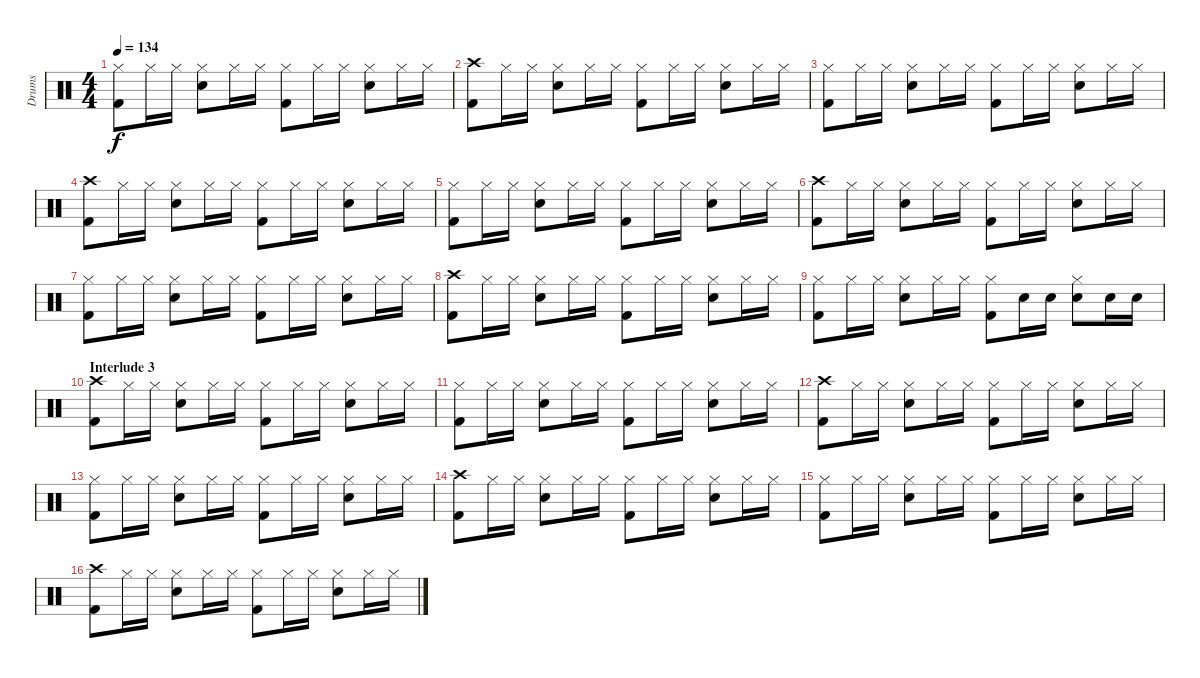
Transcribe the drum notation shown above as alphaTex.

\track ("Drums" "Drums") {instrument percussion}
\staff {score}
\articulation defaults
\ts (4 4)
\tempo 134
\clef neutral
\ks c
("Kick (hit) 2" "Hi-Hat (closed)").8{dy f} "Hi-Hat (closed)".16 "Hi-Hat (closed)".16 ("Snare (hit) 2" "Hi-Hat (closed)").8 "Hi-Hat (closed)".16 "Hi-Hat (closed)".16 ("Kick (hit) 2" "Hi-Hat (closed)").8 "Hi-Hat (closed)".16 "Hi-Hat (closed)".16 ("Snare (hit) 2" "Hi-Hat (closed)").8 "Hi-Hat (closed)".16 "Hi-Hat (closed)".16 |
("Kick (hit) 2" "Crash high (hit)").8 "Hi-Hat (closed)".16 "Hi-Hat (closed)".16 ("Snare (hit) 2" "Hi-Hat (closed)").8 "Hi-Hat (closed)".16 "Hi-Hat (closed)".16 ("Kick (hit) 2" "Hi-Hat (closed)").8 "Hi-Hat (closed)".16 "Hi-Hat (closed)".16 ("Snare (hit) 2" "Hi-Hat (closed)").8 "Hi-Hat (closed)".16 "Hi-Hat (closed)".16 |
("Kick (hit) 2" "Hi-Hat (closed)").8 "Hi-Hat (closed)".16 "Hi-Hat (closed)".16 ("Snare (hit) 2" "Hi-Hat (closed)").8 "Hi-Hat (closed)".16 "Hi-Hat (closed)".16 ("Kick (hit) 2" "Hi-Hat (closed)").8 "Hi-Hat (closed)".16 "Hi-Hat (closed)".16 ("Snare (hit) 2" "Hi-Hat (closed)").8 "Hi-Hat (closed)".16 "Hi-Hat (closed)".16 |
("Kick (hit) 2" "Crash high (hit)").8 "Hi-Hat (closed)".16 "Hi-Hat (closed)".16 ("Snare (hit) 2" "Hi-Hat (closed)").8 "Hi-Hat (closed)".16 "Hi-Hat (closed)".16 ("Kick (hit) 2" "Hi-Hat (closed)").8 "Hi-Hat (closed)".16 "Hi-Hat (closed)".16 ("Snare (hit) 2" "Hi-Hat (closed)").8 "Hi-Hat (closed)".16 "Hi-Hat (closed)".16 |
("Kick (hit) 2" "Hi-Hat (closed)").8 "Hi-Hat (closed)".16 "Hi-Hat (closed)".16 ("Snare (hit) 2" "Hi-Hat (closed)").8 "Hi-Hat (closed)".16 "Hi-Hat (closed)".16 ("Kick (hit) 2" "Hi-Hat (closed)").8 "Hi-Hat (closed)".16 "Hi-Hat (closed)".16 ("Snare (hit) 2" "Hi-Hat (closed)").8 "Hi-Hat (closed)".16 "Hi-Hat (closed)".16 |
("Kick (hit) 2" "Crash high (hit)").8 "Hi-Hat (closed)".16 "Hi-Hat (closed)".16 ("Snare (hit) 2" "Hi-Hat (closed)").8 "Hi-Hat (closed)".16 "Hi-Hat (closed)".16 ("Kick (hit) 2" "Hi-Hat (closed)").8 "Hi-Hat (closed)".16 "Hi-Hat (closed)".16 ("Snare (hit) 2" "Hi-Hat (closed)").8 "Hi-Hat (closed)".16 "Hi-Hat (closed)".16 |
("Kick (hit) 2" "Hi-Hat (closed)").8 "Hi-Hat (closed)".16 "Hi-Hat (closed)".16 ("Snare (hit) 2" "Hi-Hat (closed)").8 "Hi-Hat (closed)".16 "Hi-Hat (closed)".16 ("Kick (hit) 2" "Hi-Hat (closed)").8 "Hi-Hat (closed)".16 "Hi-Hat (closed)".16 ("Snare (hit) 2" "Hi-Hat (closed)").8 "Hi-Hat (closed)".16 "Hi-Hat (closed)".16 |
("Kick (hit) 2" "Crash high (hit)").8 "Hi-Hat (closed)".16 "Hi-Hat (closed)".16 ("Snare (hit) 2" "Hi-Hat (closed)").8 "Hi-Hat (closed)".16 "Hi-Hat (closed)".16 ("Kick (hit) 2" "Hi-Hat (closed)").8 "Hi-Hat (closed)".16 "Hi-Hat (closed)".16 ("Snare (hit) 2" "Hi-Hat (closed)").8 "Hi-Hat (closed)".16 "Hi-Hat (closed)".16 |
("Kick (hit) 2" "Hi-Hat (closed)").8 "Hi-Hat (closed)".16 "Hi-Hat (closed)".16 ("Snare (hit) 2" "Hi-Hat (closed)").8 "Hi-Hat (closed)".16 "Hi-Hat (closed)".16 ("Kick (hit) 2" "Hi-Hat (closed)").8 "Snare (hit) 2".16 "Snare (hit) 2".16 ("Snare (hit) 2" "Hi-Hat (closed)").8 "Snare (hit) 2".16 "Snare (hit) 2".16 |
\section ("" "Interlude 3")
("Kick (hit) 2" "Crash high (hit)").8 "Hi-Hat (closed)".16 "Hi-Hat (closed)".16 ("Snare (hit) 2" "Hi-Hat (closed)").8 "Hi-Hat (closed)".16 "Hi-Hat (closed)".16 ("Kick (hit) 2" "Hi-Hat (closed)").8 "Hi-Hat (closed)".16 "Hi-Hat (closed)".16 ("Snare (hit) 2" "Hi-Hat (closed)").8 "Hi-Hat (closed)".16 "Hi-Hat (closed)".16 |
("Kick (hit) 2" "Hi-Hat (closed)").8 "Hi-Hat (closed)".16 "Hi-Hat (closed)".16 ("Snare (hit) 2" "Hi-Hat (closed)").8 "Hi-Hat (closed)".16 "Hi-Hat (closed)".16 ("Kick (hit) 2" "Hi-Hat (closed)").8 "Hi-Hat (closed)".16 "Hi-Hat (closed)".16 ("Snare (hit) 2" "Hi-Hat (closed)").8 "Hi-Hat (closed)".16 "Hi-Hat (closed)".16 |
("Kick (hit) 2" "Crash high (hit)").8 "Hi-Hat (closed)".16 "Hi-Hat (closed)".16 ("Snare (hit) 2" "Hi-Hat (closed)").8 "Hi-Hat (closed)".16 "Hi-Hat (closed)".16 ("Kick (hit) 2" "Hi-Hat (closed)").8 "Hi-Hat (closed)".16 "Hi-Hat (closed)".16 ("Snare (hit) 2" "Hi-Hat (closed)").8 "Hi-Hat (closed)".16 "Hi-Hat (closed)".16 |
("Kick (hit) 2" "Hi-Hat (closed)").8 "Hi-Hat (closed)".16 "Hi-Hat (closed)".16 ("Snare (hit) 2" "Hi-Hat (closed)").8 "Hi-Hat (closed)".16 "Hi-Hat (closed)".16 ("Kick (hit) 2" "Hi-Hat (closed)").8 "Hi-Hat (closed)".16 "Hi-Hat (closed)".16 ("Snare (hit) 2" "Hi-Hat (closed)").8 "Hi-Hat (closed)".16 "Hi-Hat (closed)".16 |
("Kick (hit) 2" "Crash high (hit)").8 "Hi-Hat (closed)".16 "Hi-Hat (closed)".16 ("Snare (hit) 2" "Hi-Hat (closed)").8 "Hi-Hat (closed)".16 "Hi-Hat (closed)".16 ("Kick (hit) 2" "Hi-Hat (closed)").8 "Hi-Hat (closed)".16 "Hi-Hat (closed)".16 ("Snare (hit) 2" "Hi-Hat (closed)").8 "Hi-Hat (closed)".16 "Hi-Hat (closed)".16 |
("Kick (hit) 2" "Hi-Hat (closed)").8 "Hi-Hat (closed)".16 "Hi-Hat (closed)".16 ("Snare (hit) 2" "Hi-Hat (closed)").8 "Hi-Hat (closed)".16 "Hi-Hat (closed)".16 ("Kick (hit) 2" "Hi-Hat (closed)").8 "Hi-Hat (closed)".16 "Hi-Hat (closed)".16 ("Snare (hit) 2" "Hi-Hat (closed)").8 "Hi-Hat (closed)".16 "Hi-Hat (closed)".16 |
("Kick (hit) 2" "Crash high (hit)").8 "Hi-Hat (closed)".16 "Hi-Hat (closed)".16 ("Snare (hit) 2" "Hi-Hat (closed)").8 "Hi-Hat (closed)".16 "Hi-Hat (closed)".16 ("Kick (hit) 2" "Hi-Hat (closed)").8 "Hi-Hat (closed)".16 "Hi-Hat (closed)".16 ("Snare (hit) 2" "Hi-Hat (closed)").8 "Hi-Hat (closed)".16 "Hi-Hat (closed)".16
